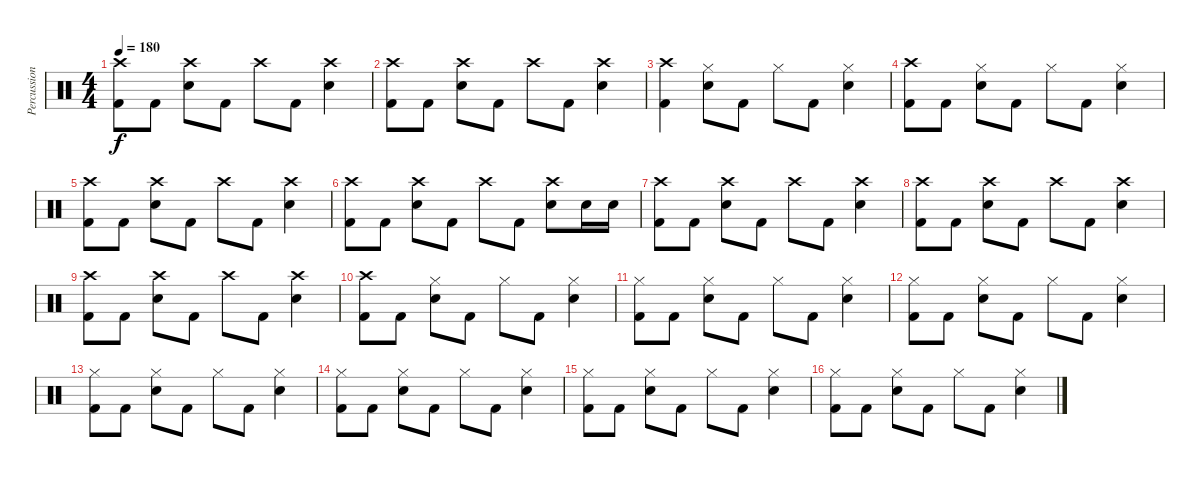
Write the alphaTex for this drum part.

\track ("Percussions" "Percussion") {instrument percussion}
\staff {score}
\articulation defaults
\ts (4 4)
\tempo 180
\clef neutral
\ks c
("Crash high (hit)" "Kick (hit) 2").8{dy f} "Kick (hit) 2".8 ("Crash high (hit)" "Snare (hit) 2").8 "Kick (hit) 2".8 "Crash high (hit)".8 "Kick (hit) 2".8 ("Crash high (hit)" "Snare (hit) 2").4 |
("Crash high (hit)" "Kick (hit) 2").8 "Kick (hit) 2".8 ("Crash high (hit)" "Snare (hit) 2").8 "Kick (hit) 2".8 "Crash high (hit)".8 "Kick (hit) 2".8 ("Crash high (hit)" "Snare (hit) 2").4 |
("Crash high (hit)" "Kick (hit) 2").4 ("Hi-Hat (closed)" "Snare (hit) 2").8 "Kick (hit) 2".8 "Hi-Hat (closed)".8 "Kick (hit) 2".8 ("Hi-Hat (closed)" "Snare (hit) 2").4 |
("Crash high (hit)" "Kick (hit) 2").8 "Kick (hit) 2".8 ("Hi-Hat (closed)" "Snare (hit) 2").8 "Kick (hit) 2".8 "Hi-Hat (closed)".8 "Kick (hit) 2".8 ("Hi-Hat (closed)" "Snare (hit) 2").4 |
("Crash high (hit)" "Kick (hit) 2").8 "Kick (hit) 2".8 ("Crash high (hit)" "Snare (hit) 2").8 "Kick (hit) 2".8 "Crash high (hit)".8 "Kick (hit) 2".8 ("Crash high (hit)" "Snare (hit) 2").4 |
("Crash high (hit)" "Kick (hit) 2").8 "Kick (hit) 2".8 ("Crash high (hit)" "Snare (hit) 2").8 "Kick (hit) 2".8 "Crash high (hit)".8 "Kick (hit) 2".8 ("Crash high (hit)" "Snare (hit) 2").8 "Snare (hit) 2".16 "Snare (hit) 2".16 |
("Crash high (hit)" "Kick (hit) 2").8 "Kick (hit) 2".8 ("Crash high (hit)" "Snare (hit) 2").8 "Kick (hit) 2".8 "Crash high (hit)".8 "Kick (hit) 2".8 ("Crash high (hit)" "Snare (hit) 2").4 |
("Crash high (hit)" "Kick (hit) 2").8 "Kick (hit) 2".8 ("Crash high (hit)" "Snare (hit) 2").8 "Kick (hit) 2".8 "Crash high (hit)".8 "Kick (hit) 2".8 ("Crash high (hit)" "Snare (hit) 2").4 |
("Crash high (hit)" "Kick (hit) 2").8 "Kick (hit) 2".8 ("Crash high (hit)" "Snare (hit) 2").8 "Kick (hit) 2".8 "Crash high (hit)".8 "Kick (hit) 2".8 ("Crash high (hit)" "Snare (hit) 2").4 |
("Crash high (hit)" "Kick (hit) 2").8 "Kick (hit) 2".8 ("Hi-Hat (closed)" "Snare (hit) 2").8 "Kick (hit) 2".8 "Hi-Hat (closed)".8 "Kick (hit) 2".8 ("Hi-Hat (closed)" "Snare (hit) 2").4 |
("Hi-Hat (closed)" "Kick (hit) 2").8 "Kick (hit) 2".8 ("Hi-Hat (closed)" "Snare (hit) 2").8 "Kick (hit) 2".8 "Hi-Hat (closed)".8 "Kick (hit) 2".8 ("Hi-Hat (closed)" "Snare (hit) 2").4 |
("Hi-Hat (closed)" "Kick (hit) 2").8 "Kick (hit) 2".8 ("Hi-Hat (closed)" "Snare (hit) 2").8 "Kick (hit) 2".8 "Hi-Hat (closed)".8 "Kick (hit) 2".8 ("Hi-Hat (closed)" "Snare (hit) 2").4 |
("Hi-Hat (closed)" "Kick (hit) 2").8 "Kick (hit) 2".8 ("Hi-Hat (closed)" "Snare (hit) 2").8 "Kick (hit) 2".8 "Hi-Hat (closed)".8 "Kick (hit) 2".8 ("Hi-Hat (closed)" "Snare (hit) 2").4 |
("Hi-Hat (closed)" "Kick (hit) 2").8 "Kick (hit) 2".8 ("Hi-Hat (closed)" "Snare (hit) 2").8 "Kick (hit) 2".8 "Hi-Hat (closed)".8 "Kick (hit) 2".8 ("Hi-Hat (closed)" "Snare (hit) 2").4 |
("Hi-Hat (closed)" "Kick (hit) 2").8 "Kick (hit) 2".8 ("Hi-Hat (closed)" "Snare (hit) 2").8 "Kick (hit) 2".8 "Hi-Hat (closed)".8 "Kick (hit) 2".8 ("Hi-Hat (closed)" "Snare (hit) 2").4 |
("Hi-Hat (closed)" "Kick (hit) 2").8 "Kick (hit) 2".8 ("Hi-Hat (closed)" "Snare (hit) 2").8 "Kick (hit) 2".8 "Hi-Hat (closed)".8 "Kick (hit) 2".8 ("Hi-Hat (closed)" "Snare (hit) 2").4
